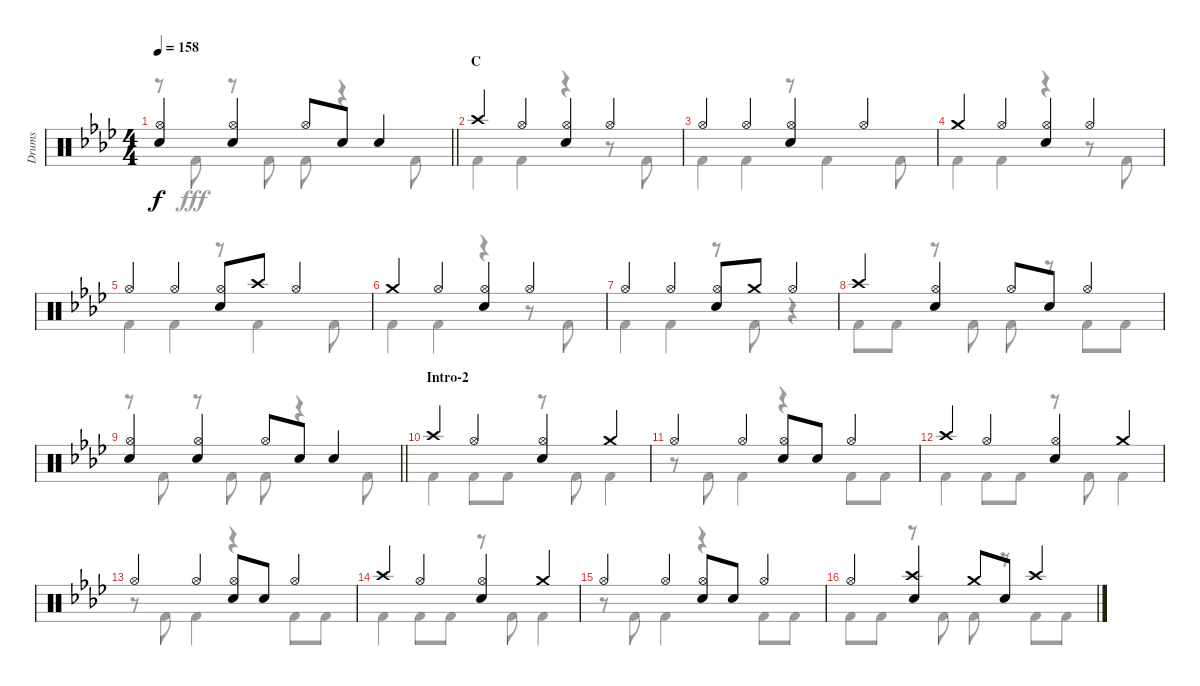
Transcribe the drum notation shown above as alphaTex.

\track ("Drums" "Drums") {instrument percussion}
\staff {score}
\articulation defaults
\voice
\ts (4 4)
\tempo 158
\clef neutral
\barLineRight lightlight
\ks ab
("Hi-Hat (open)" "Snare (hit) 2").4{dy f} ("Hi-Hat (open)" "Snare (hit) 2").4 "Hi-Hat (open)".8 "Snare (hit) 2".8 "Snare (hit) 2".4 |
\section ("" "C")
"Crash high (hit)".4 "Hi-Hat (open)".4 ("Hi-Hat (open)" "Snare (hit) 2").4 "Hi-Hat (open)".4 |
"Hi-Hat (open)".4 "Hi-Hat (open)".4 ("Hi-Hat (open)" "Snare (hit) 2").4 "Hi-Hat (open)".4 |
"Crash medium (hit)".4 "Hi-Hat (open)".4 ("Hi-Hat (open)" "Snare (hit) 2").4 "Hi-Hat (open)".4 |
"Hi-Hat (open)".4 "Hi-Hat (open)".4 ("Hi-Hat (open)" "Snare (hit) 2").8 "Crash high (hit)".8 "Hi-Hat (open)".4 |
"Crash medium (hit)".4 "Hi-Hat (open)".4 ("Hi-Hat (open)" "Snare (hit) 2").4 "Hi-Hat (open)".4 |
"Hi-Hat (open)".4 "Hi-Hat (open)".4 ("Hi-Hat (open)" "Snare (hit) 2").8 "Crash medium (hit)".8 "Hi-Hat (open)".4 |
"Crash high (hit)".4 ("Hi-Hat (open)" "Snare (hit) 2").4 "Hi-Hat (open)".8 "Snare (hit) 2".8 "Hi-Hat (open)".4 |
\barLineRight lightlight
("Hi-Hat (open)" "Snare (hit) 2").4 ("Hi-Hat (open)" "Snare (hit) 2").4 "Hi-Hat (open)".8 "Snare (hit) 2".8 "Snare (hit) 2".4 |
\section ("" "Intro-2")
"Crash high (hit)".4 "Hi-Hat (open)".4 ("Hi-Hat (open)" "Snare (hit) 2").4 "Crash medium (hit)".4 |
"Hi-Hat (open)".4 "Hi-Hat (open)".4 ("Hi-Hat (open)" "Snare (hit) 2").8 "Snare (hit) 2".8 "Hi-Hat (open)".4 |
"Crash high (hit)".4 "Hi-Hat (open)".4 ("Hi-Hat (open)" "Snare (hit) 2").4 "Crash medium (hit)".4 |
"Hi-Hat (open)".4 "Hi-Hat (open)".4 ("Hi-Hat (open)" "Snare (hit) 2").8 "Snare (hit) 2".8 "Hi-Hat (open)".4 |
"Crash high (hit)".4 "Hi-Hat (open)".4 ("Hi-Hat (open)" "Snare (hit) 2").4 "Crash medium (hit)".4 |
"Hi-Hat (open)".4 "Hi-Hat (open)".4 ("Hi-Hat (open)" "Snare (hit) 2").8 "Snare (hit) 2".8 "Hi-Hat (open)".4 |
"Hi-Hat (open)".4 ("Crash high (hit)" "Snare (hit) 2").4 "Crash medium (hit)".8 "Snare (hit) 2".8 "Crash high (hit)".4
\voice
\clef neutral
\ottava regular
\simile none
\barLineRight lightlight
\ks ab
r.8{dy fff} "Kick (hit) 2".8 r.8 "Kick (hit) 2".8 "Kick (hit) 2".8 r.4 "Kick (hit) 2".8 |
"Kick (hit) 2".4 "Kick (hit) 2".4 r.4 r.8 "Kick (hit) 2".8 |
"Kick (hit) 2".4 "Kick (hit) 2".4 r.8 "Kick (hit) 2".4 "Kick (hit) 2".8 |
"Kick (hit) 2".4 "Kick (hit) 2".4 r.4 r.8 "Kick (hit) 2".8 |
"Kick (hit) 2".4 "Kick (hit) 2".4 r.8 "Kick (hit) 2".4 "Kick (hit) 2".8 |
"Kick (hit) 2".4 "Kick (hit) 2".4 r.4 r.8 "Kick (hit) 2".8 |
"Kick (hit) 2".4 "Kick (hit) 2".4 r.8 "Kick (hit) 2".8 r.4 |
"Kick (hit) 2".8 "Kick (hit) 2".8 r.8 "Kick (hit) 2".8 "Kick (hit) 2".8 r.8 "Kick (hit) 2".8 "Kick (hit) 2".8 |
\barLineRight lightlight
r.8 "Kick (hit) 2".8 r.8 "Kick (hit) 2".8 "Kick (hit) 2".8 r.4 "Kick (hit) 2".8 |
"Kick (hit) 2".4 "Kick (hit) 2".8 "Kick (hit) 2".8 r.8 "Kick (hit) 2".8 "Kick (hit) 2".4 |
r.8 "Kick (hit) 2".8 "Kick (hit) 2".4 r.4 "Kick (hit) 2".8 "Kick (hit) 2".8 |
"Kick (hit) 2".4 "Kick (hit) 2".8 "Kick (hit) 2".8 r.8 "Kick (hit) 2".8 "Kick (hit) 2".4 |
r.8 "Kick (hit) 2".8 "Kick (hit) 2".4 r.4 "Kick (hit) 2".8 "Kick (hit) 2".8 |
"Kick (hit) 2".4 "Kick (hit) 2".8 "Kick (hit) 2".8 r.8 "Kick (hit) 2".8 "Kick (hit) 2".4 |
r.8 "Kick (hit) 2".8 "Kick (hit) 2".4 r.4 "Kick (hit) 2".8 "Kick (hit) 2".8 |
"Kick (hit) 2".8 "Kick (hit) 2".8 r.8 "Kick (hit) 2".8 "Kick (hit) 2".8 r.8 "Kick (hit) 2".8 "Kick (hit) 2".8
